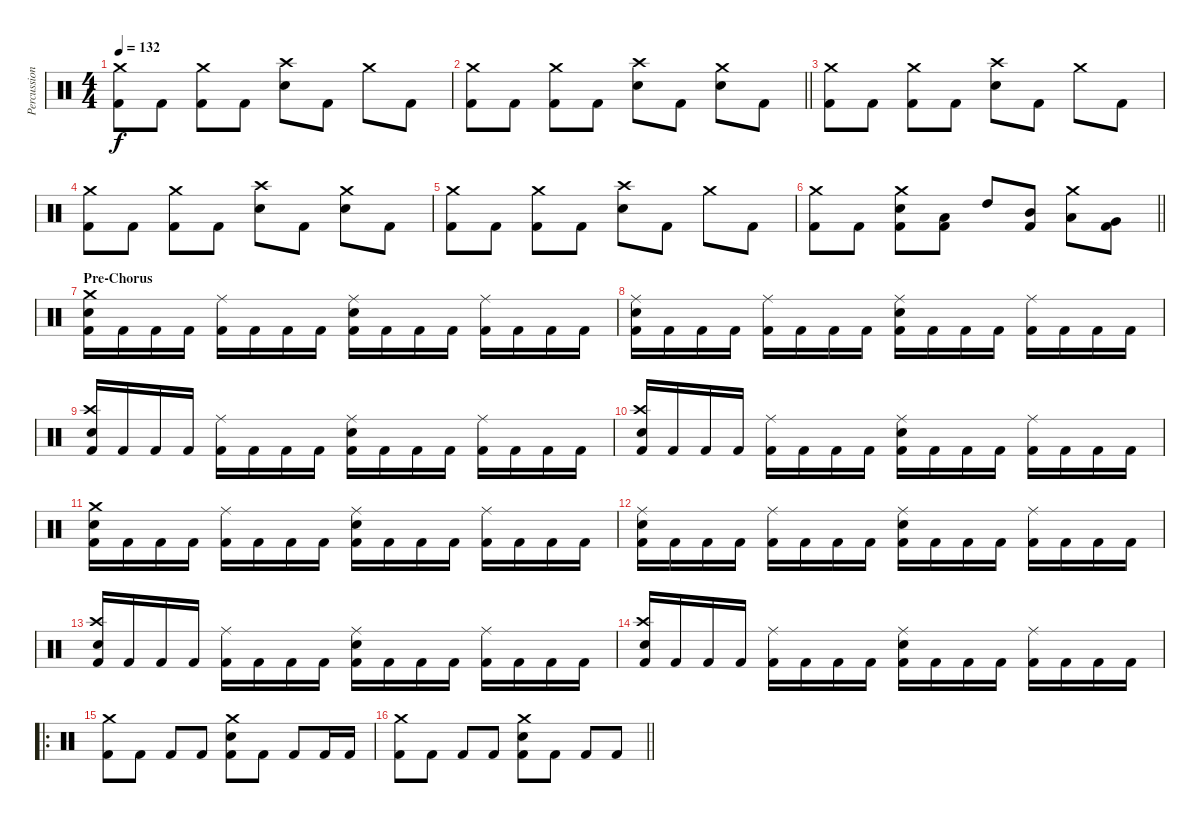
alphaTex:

\track ("Percussion" "Percussion") {instrument percussion}
\staff {score}
\articulation defaults
\ts (4 4)
\tempo 132
\clef neutral
\ks c
("Crash medium (hit)" "Kick (hit) 2").8{dy f} "Kick (hit) 2".8 ("Crash medium (hit)" "Kick (hit) 2").8 "Kick (hit) 2".8 ("Crash high (hit)" "Electric Snare (hit)").8 "Kick (hit) 2".8 "Crash medium (hit)".8 "Kick (hit) 2".8 |
\barLineRight lightlight
("Crash medium (hit)" "Kick (hit) 2").8 "Kick (hit) 2".8 ("Crash medium (hit)" "Kick (hit) 2").8 "Kick (hit) 2".8 ("Crash high (hit)" "Electric Snare (hit)").8 "Kick (hit) 2".8 ("Crash medium (hit)" "Electric Snare (hit)").8 "Kick (hit) 2".8 |
("Crash medium (hit)" "Kick (hit) 2").8 "Kick (hit) 2".8 ("Crash medium (hit)" "Kick (hit) 2").8 "Kick (hit) 2".8 ("Crash high (hit)" "Electric Snare (hit)").8 "Kick (hit) 2".8 "Crash medium (hit)".8 "Kick (hit) 2".8 |
("Crash medium (hit)" "Kick (hit) 2").8 "Kick (hit) 2".8 ("Crash medium (hit)" "Kick (hit) 2").8 "Kick (hit) 2".8 ("Crash high (hit)" "Electric Snare (hit)").8 "Kick (hit) 2".8 ("Crash medium (hit)" "Electric Snare (hit)").8 "Kick (hit) 2".8 |
("Crash medium (hit)" "Kick (hit) 2").8 "Kick (hit) 2".8 ("Crash medium (hit)" "Kick (hit) 2").8 "Kick (hit) 2".8 ("Crash high (hit)" "Electric Snare (hit)").8 "Kick (hit) 2".8 "Crash medium (hit)".8 "Kick (hit) 2".8 |
\barLineRight lightlight
("Crash medium (hit)" "Kick (hit) 2").8 "Kick (hit) 2".8 ("Crash medium (hit)" "Electric Snare (hit)" "Kick (hit) 2").8 ("Low Floor Tom (hit)" "Kick (hit) 2").8 "High Tom (hit)".8 ("Mid Tom (hit)" "Kick (hit) 2").8 ("Crash medium (hit)" "Low Tom (hit)").8 ("Very Low Tom (hit)" "Kick (hit) 2").8 |
\section ("" "Pre-Chorus")
("Crash medium (hit)" "Electric Snare (hit)" "Kick (hit) 2").16 "Kick (hit) 2".16 "Kick (hit) 2".16 "Kick (hit) 2".16 ("Ride (middle)" "Kick (hit) 2").16 "Kick (hit) 2".16 "Kick (hit) 2".16 "Kick (hit) 2".16 ("Ride (middle)" "Electric Snare (hit)" "Kick (hit) 2").16 "Kick (hit) 2".16 "Kick (hit) 2".16 "Kick (hit) 2".16 ("Ride (middle)" "Kick (hit) 2").16 "Kick (hit) 2".16 "Kick (hit) 2".16 "Kick (hit) 2".16 |
("Ride (middle)" "Electric Snare (hit)" "Kick (hit) 2").16 "Kick (hit) 2".16 "Kick (hit) 2".16 "Kick (hit) 2".16 ("Ride (middle)" "Kick (hit) 2").16 "Kick (hit) 2".16 "Kick (hit) 2".16 "Kick (hit) 2".16 ("Ride (middle)" "Electric Snare (hit)" "Kick (hit) 2").16 "Kick (hit) 2".16 "Kick (hit) 2".16 "Kick (hit) 2".16 ("Ride (middle)" "Kick (hit) 2").16 "Kick (hit) 2".16 "Kick (hit) 2".16 "Kick (hit) 2".16 |
("Crash high (hit)" "Electric Snare (hit)" "Kick (hit) 2").16 "Kick (hit) 2".16 "Kick (hit) 2".16 "Kick (hit) 2".16 ("Ride (middle)" "Kick (hit) 2").16 "Kick (hit) 2".16 "Kick (hit) 2".16 "Kick (hit) 2".16 ("Ride (middle)" "Electric Snare (hit)" "Kick (hit) 2").16 "Kick (hit) 2".16 "Kick (hit) 2".16 "Kick (hit) 2".16 ("Ride (middle)" "Kick (hit) 2").16 "Kick (hit) 2".16 "Kick (hit) 2".16 "Kick (hit) 2".16 |
("Crash high (hit)" "Electric Snare (hit)" "Kick (hit) 2").16 "Kick (hit) 2".16 "Kick (hit) 2".16 "Kick (hit) 2".16 ("Ride (middle)" "Kick (hit) 2").16 "Kick (hit) 2".16 "Kick (hit) 2".16 "Kick (hit) 2".16 ("Ride (middle)" "Electric Snare (hit)" "Kick (hit) 2").16 "Kick (hit) 2".16 "Kick (hit) 2".16 "Kick (hit) 2".16 ("Ride (middle)" "Kick (hit) 2").16 "Kick (hit) 2".16 "Kick (hit) 2".16 "Kick (hit) 2".16 |
("Crash medium (hit)" "Electric Snare (hit)" "Kick (hit) 2").16 "Kick (hit) 2".16 "Kick (hit) 2".16 "Kick (hit) 2".16 ("Ride (middle)" "Kick (hit) 2").16 "Kick (hit) 2".16 "Kick (hit) 2".16 "Kick (hit) 2".16 ("Ride (middle)" "Electric Snare (hit)" "Kick (hit) 2").16 "Kick (hit) 2".16 "Kick (hit) 2".16 "Kick (hit) 2".16 ("Ride (middle)" "Kick (hit) 2").16 "Kick (hit) 2".16 "Kick (hit) 2".16 "Kick (hit) 2".16 |
("Ride (middle)" "Electric Snare (hit)" "Kick (hit) 2").16 "Kick (hit) 2".16 "Kick (hit) 2".16 "Kick (hit) 2".16 ("Ride (middle)" "Kick (hit) 2").16 "Kick (hit) 2".16 "Kick (hit) 2".16 "Kick (hit) 2".16 ("Ride (middle)" "Electric Snare (hit)" "Kick (hit) 2").16 "Kick (hit) 2".16 "Kick (hit) 2".16 "Kick (hit) 2".16 ("Ride (middle)" "Kick (hit) 2").16 "Kick (hit) 2".16 "Kick (hit) 2".16 "Kick (hit) 2".16 |
("Crash high (hit)" "Electric Snare (hit)" "Kick (hit) 2").16 "Kick (hit) 2".16 "Kick (hit) 2".16 "Kick (hit) 2".16 ("Ride (middle)" "Kick (hit) 2").16 "Kick (hit) 2".16 "Kick (hit) 2".16 "Kick (hit) 2".16 ("Ride (middle)" "Electric Snare (hit)" "Kick (hit) 2").16 "Kick (hit) 2".16 "Kick (hit) 2".16 "Kick (hit) 2".16 ("Ride (middle)" "Kick (hit) 2").16 "Kick (hit) 2".16 "Kick (hit) 2".16 "Kick (hit) 2".16 |
("Crash high (hit)" "Electric Snare (hit)" "Kick (hit) 2").16 "Kick (hit) 2".16 "Kick (hit) 2".16 "Kick (hit) 2".16 ("Ride (middle)" "Kick (hit) 2").16 "Kick (hit) 2".16 "Kick (hit) 2".16 "Kick (hit) 2".16 ("Ride (middle)" "Electric Snare (hit)" "Kick (hit) 2").16 "Kick (hit) 2".16 "Kick (hit) 2".16 "Kick (hit) 2".16 ("Ride (middle)" "Kick (hit) 2").16 "Kick (hit) 2".16 "Kick (hit) 2".16 "Kick (hit) 2".16 |
\ro
("Crash medium (hit)" "Kick (hit) 2").8 "Kick (hit) 2".8 "Kick (hit) 2".8 "Kick (hit) 2".8 ("Crash medium (hit)" "Electric Snare (hit)" "Kick (hit) 2").8 "Kick (hit) 2".8 "Kick (hit) 2".8 "Kick (hit) 2".16 "Kick (hit) 2".16 |
\barLineRight lightlight
("Crash medium (hit)" "Kick (hit) 2").8 "Kick (hit) 2".8 "Kick (hit) 2".8 "Kick (hit) 2".8 ("Crash medium (hit)" "Electric Snare (hit)" "Kick (hit) 2").8 "Kick (hit) 2".8 "Kick (hit) 2".8 "Kick (hit) 2".8
